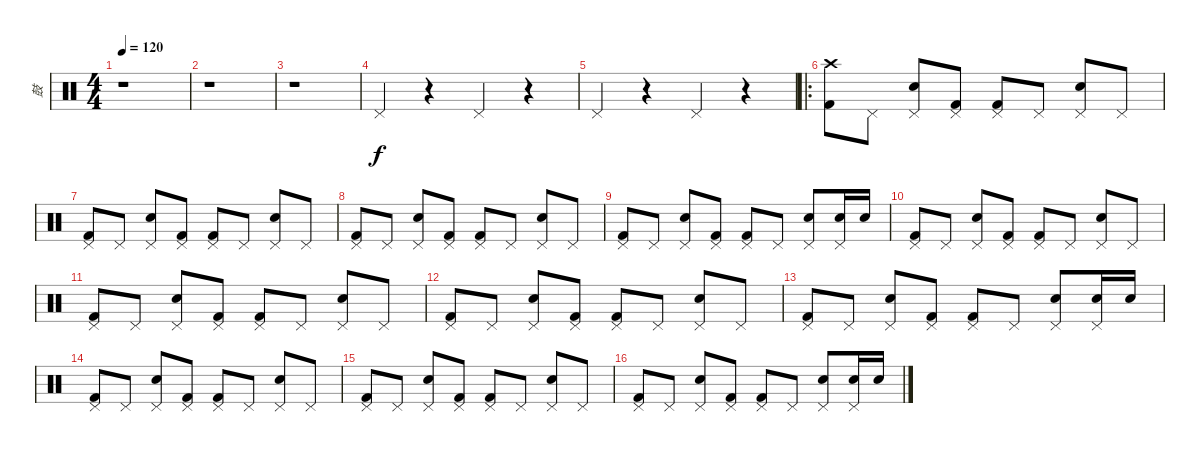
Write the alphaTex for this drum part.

\track ("鼓" "鼓") {instrument percussion}
\staff {score}
\articulation defaults
\ts (4 4)
\tempo 120
\clef neutral
\ks c
r.1{dy f} |
r.1 |
r.1 |
"Pedal Hi-Hat (hit)".4 r.4 "Pedal Hi-Hat (hit)".4 r.4 |
"Pedal Hi-Hat (hit)".4 r.4 "Pedal Hi-Hat (hit)".4 r.4 |
\ro
("Crash high (hit)" "Kick (hit) 2").8 "Pedal Hi-Hat (hit)".8 ("Pedal Hi-Hat (hit)" "Electric Snare (hit)").8 ("Pedal Hi-Hat (hit)" "Kick (hit) 2").8 ("Pedal Hi-Hat (hit)" "Kick (hit) 2").8 "Pedal Hi-Hat (hit)".8 ("Pedal Hi-Hat (hit)" "Electric Snare (hit)").8 "Pedal Hi-Hat (hit)".8 |
("Pedal Hi-Hat (hit)" "Kick (hit) 2").8 "Pedal Hi-Hat (hit)".8 ("Pedal Hi-Hat (hit)" "Electric Snare (hit)").8 ("Pedal Hi-Hat (hit)" "Kick (hit) 2").8 ("Pedal Hi-Hat (hit)" "Kick (hit) 2").8 "Pedal Hi-Hat (hit)".8 ("Pedal Hi-Hat (hit)" "Electric Snare (hit)").8 "Pedal Hi-Hat (hit)".8 |
("Pedal Hi-Hat (hit)" "Kick (hit) 2").8 "Pedal Hi-Hat (hit)".8 ("Pedal Hi-Hat (hit)" "Electric Snare (hit)").8 ("Pedal Hi-Hat (hit)" "Kick (hit) 2").8 ("Pedal Hi-Hat (hit)" "Kick (hit) 2").8 "Pedal Hi-Hat (hit)".8 ("Pedal Hi-Hat (hit)" "Electric Snare (hit)").8 "Pedal Hi-Hat (hit)".8 |
("Pedal Hi-Hat (hit)" "Kick (hit) 2").8 "Pedal Hi-Hat (hit)".8 ("Pedal Hi-Hat (hit)" "Electric Snare (hit)").8 ("Pedal Hi-Hat (hit)" "Kick (hit) 2").8 ("Pedal Hi-Hat (hit)" "Kick (hit) 2").8 "Pedal Hi-Hat (hit)".8 ("Pedal Hi-Hat (hit)" "Electric Snare (hit)").8 ("Pedal Hi-Hat (hit)" "Electric Snare (hit)").16 "Electric Snare (hit)".16 |
("Pedal Hi-Hat (hit)" "Kick (hit) 2").8 "Pedal Hi-Hat (hit)".8 ("Pedal Hi-Hat (hit)" "Electric Snare (hit)").8 ("Pedal Hi-Hat (hit)" "Kick (hit) 2").8 ("Pedal Hi-Hat (hit)" "Kick (hit) 2").8 "Pedal Hi-Hat (hit)".8 ("Pedal Hi-Hat (hit)" "Electric Snare (hit)").8 "Pedal Hi-Hat (hit)".8 |
("Pedal Hi-Hat (hit)" "Kick (hit) 2").8 "Pedal Hi-Hat (hit)".8 ("Pedal Hi-Hat (hit)" "Electric Snare (hit)").8 ("Pedal Hi-Hat (hit)" "Kick (hit) 2").8 ("Pedal Hi-Hat (hit)" "Kick (hit) 2").8 "Pedal Hi-Hat (hit)".8 ("Pedal Hi-Hat (hit)" "Electric Snare (hit)").8 "Pedal Hi-Hat (hit)".8 |
("Pedal Hi-Hat (hit)" "Kick (hit) 2").8 "Pedal Hi-Hat (hit)".8 ("Pedal Hi-Hat (hit)" "Electric Snare (hit)").8 ("Pedal Hi-Hat (hit)" "Kick (hit) 2").8 ("Pedal Hi-Hat (hit)" "Kick (hit) 2").8 "Pedal Hi-Hat (hit)".8 ("Pedal Hi-Hat (hit)" "Electric Snare (hit)").8 "Pedal Hi-Hat (hit)".8 |
("Pedal Hi-Hat (hit)" "Kick (hit) 2").8 "Pedal Hi-Hat (hit)".8 ("Pedal Hi-Hat (hit)" "Electric Snare (hit)").8 ("Pedal Hi-Hat (hit)" "Kick (hit) 2").8 ("Pedal Hi-Hat (hit)" "Kick (hit) 2").8 "Pedal Hi-Hat (hit)".8 ("Pedal Hi-Hat (hit)" "Electric Snare (hit)").8 ("Pedal Hi-Hat (hit)" "Electric Snare (hit)").16 "Electric Snare (hit)".16 |
("Pedal Hi-Hat (hit)" "Kick (hit) 2").8 "Pedal Hi-Hat (hit)".8 ("Pedal Hi-Hat (hit)" "Electric Snare (hit)").8 ("Pedal Hi-Hat (hit)" "Kick (hit) 2").8 ("Pedal Hi-Hat (hit)" "Kick (hit) 2").8 "Pedal Hi-Hat (hit)".8 ("Pedal Hi-Hat (hit)" "Electric Snare (hit)").8 "Pedal Hi-Hat (hit)".8 |
("Pedal Hi-Hat (hit)" "Kick (hit) 2").8 "Pedal Hi-Hat (hit)".8 ("Pedal Hi-Hat (hit)" "Electric Snare (hit)").8 ("Pedal Hi-Hat (hit)" "Kick (hit) 2").8 ("Pedal Hi-Hat (hit)" "Kick (hit) 2").8 "Pedal Hi-Hat (hit)".8 ("Pedal Hi-Hat (hit)" "Electric Snare (hit)").8 "Pedal Hi-Hat (hit)".8 |
("Pedal Hi-Hat (hit)" "Kick (hit) 2").8 "Pedal Hi-Hat (hit)".8 ("Pedal Hi-Hat (hit)" "Electric Snare (hit)").8 ("Pedal Hi-Hat (hit)" "Kick (hit) 2").8 ("Pedal Hi-Hat (hit)" "Kick (hit) 2").8 "Pedal Hi-Hat (hit)".8 ("Pedal Hi-Hat (hit)" "Electric Snare (hit)").8 ("Pedal Hi-Hat (hit)" "Electric Snare (hit)").16 "Electric Snare (hit)".16
